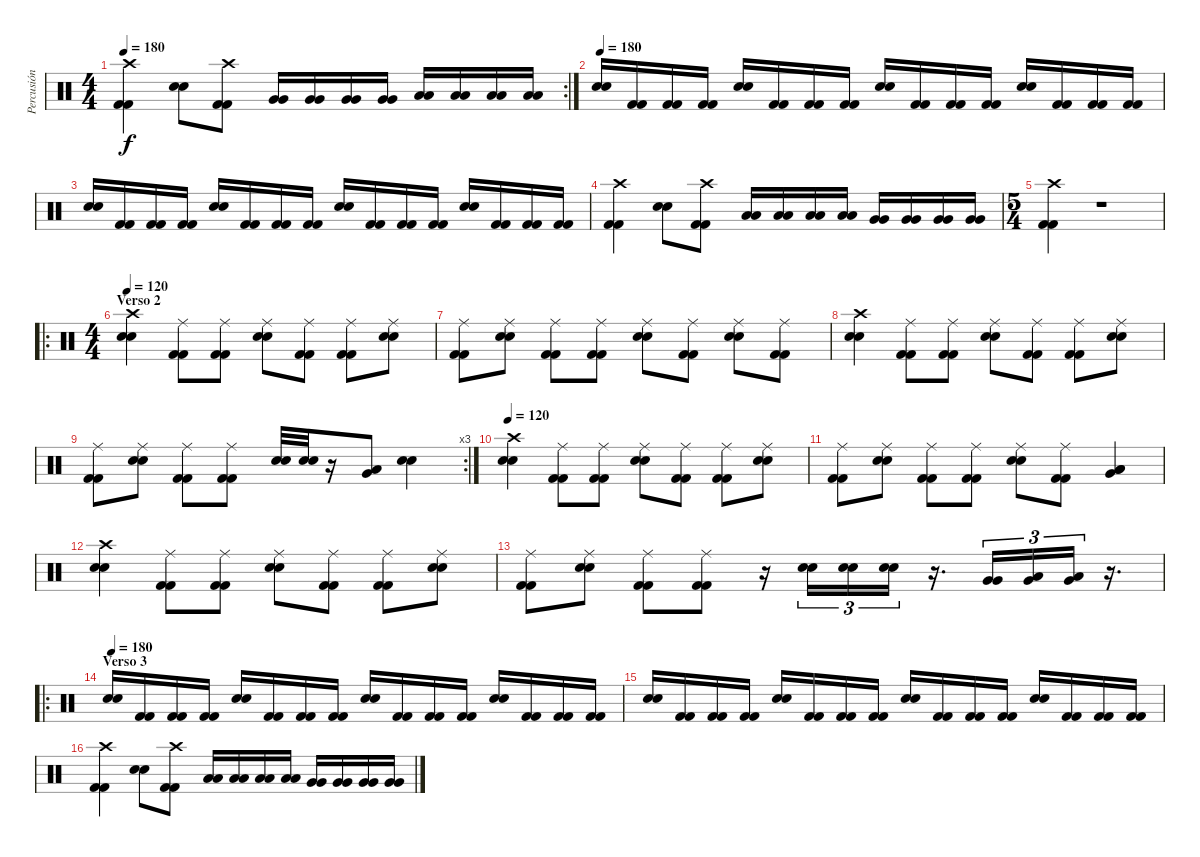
\track ("Percusión" "Percusión") {instrument percussion}
\staff {score}
\articulation defaults
\rc 2
\ts (4 4)
\tempo 180
\clef neutral
\ks c
("Crash high (hit)" "Kick (hit) 2" "Kick (hit) 2").4{dy f} ("Snare (hit) 2" "Snare (hit) 2").8 ("Crash high (hit)" "Kick (hit) 2" "Kick (hit) 2").8 ("Very Low Tom (hit)" "Very Low Tom (hit)").16 ("Very Low Tom (hit)" "Very Low Tom (hit)").16 ("Very Low Tom (hit)" "Very Low Tom (hit)").16 ("Very Low Tom (hit)" "Very Low Tom (hit)").16 ("Low Floor Tom (hit)" "Low Floor Tom (hit)").16 ("Low Floor Tom (hit)" "Low Floor Tom (hit)").16 ("Low Floor Tom (hit)" "Low Floor Tom (hit)").16 ("Low Floor Tom (hit)" "Low Floor Tom (hit)").16 |
\tempo 180
("Snare (hit) 2" "Snare (hit) 2").16 ("Kick (hit) 2" "Kick (hit) 2").16 ("Kick (hit) 2" "Kick (hit) 2").16 ("Kick (hit) 2" "Kick (hit) 2").16 ("Snare (hit) 2" "Snare (hit) 2").16 ("Kick (hit) 2" "Kick (hit) 2").16 ("Kick (hit) 2" "Kick (hit) 2").16 ("Kick (hit) 2" "Kick (hit) 2").16 ("Snare (hit) 2" "Snare (hit) 2").16 ("Kick (hit) 2" "Kick (hit) 2").16 ("Kick (hit) 2" "Kick (hit) 2").16 ("Kick (hit) 2" "Kick (hit) 2").16 ("Snare (hit) 2" "Snare (hit) 2").16 ("Kick (hit) 2" "Kick (hit) 2").16 ("Kick (hit) 2" "Kick (hit) 2").16 ("Kick (hit) 2" "Kick (hit) 2").16 |
("Snare (hit) 2" "Snare (hit) 2").16 ("Kick (hit) 2" "Kick (hit) 2").16 ("Kick (hit) 2" "Kick (hit) 2").16 ("Kick (hit) 2" "Kick (hit) 2").16 ("Snare (hit) 2" "Snare (hit) 2").16 ("Kick (hit) 2" "Kick (hit) 2").16 ("Kick (hit) 2" "Kick (hit) 2").16 ("Kick (hit) 2" "Kick (hit) 2").16 ("Snare (hit) 2" "Snare (hit) 2").16 ("Kick (hit) 2" "Kick (hit) 2").16 ("Kick (hit) 2" "Kick (hit) 2").16 ("Kick (hit) 2" "Kick (hit) 2").16 ("Snare (hit) 2" "Snare (hit) 2").16 ("Kick (hit) 2" "Kick (hit) 2").16 ("Kick (hit) 2" "Kick (hit) 2").16 ("Kick (hit) 2" "Kick (hit) 2").16 |
("Crash high (hit)" "Kick (hit) 2" "Kick (hit) 2").4 ("Snare (hit) 2" "Snare (hit) 2").8 ("Crash high (hit)" "Kick (hit) 2" "Kick (hit) 2").8 ("Low Tom (hit)" "Low Tom (hit)").16 ("Low Tom (hit)" "Low Tom (hit)").16 ("Low Tom (hit)" "Low Tom (hit)").16 ("Low Tom (hit)" "Low Tom (hit)").16 ("Very Low Tom (hit)" "Very Low Tom (hit)").16 ("Very Low Tom (hit)" "Very Low Tom (hit)").16 ("Very Low Tom (hit)" "Very Low Tom (hit)").16 ("Very Low Tom (hit)" "Very Low Tom (hit)").16 |
\ts (5 4)
("Crash high (hit)" "Kick (hit) 2" "Kick (hit) 2").4 r.1 |
\ro
\ts (4 4)
\section ("" "Verso 2")
\tempo 120
("Crash high (hit)" "Snare (hit) 2" "Snare (hit) 2").4 ("Ride (middle)" "Kick (hit) 2" "Kick (hit) 2").8 ("Ride (middle)" "Kick (hit) 2" "Kick (hit) 2").8 ("Ride (middle)" "Snare (hit) 2" "Snare (hit) 2").8 ("Ride (middle)" "Kick (hit) 2" "Kick (hit) 2").8 ("Ride (middle)" "Kick (hit) 2" "Kick (hit) 2").8 ("Ride (middle)" "Snare (hit) 2" "Snare (hit) 2").8 |
("Ride (middle)" "Kick (hit) 2" "Kick (hit) 2").8 ("Ride (middle)" "Snare (hit) 2" "Snare (hit) 2").8 ("Ride (middle)" "Kick (hit) 2" "Kick (hit) 2").8 ("Ride (middle)" "Kick (hit) 2" "Kick (hit) 2").8 ("Ride (middle)" "Snare (hit) 2" "Snare (hit) 2").8 ("Ride (middle)" "Kick (hit) 2" "Kick (hit) 2").8 ("Ride (middle)" "Snare (hit) 2" "Snare (hit) 2").8 ("Ride (middle)" "Kick (hit) 2" "Kick (hit) 2").8 |
("Crash high (hit)" "Snare (hit) 2" "Snare (hit) 2").4 ("Ride (middle)" "Kick (hit) 2" "Kick (hit) 2").8 ("Ride (middle)" "Kick (hit) 2" "Kick (hit) 2").8 ("Ride (middle)" "Snare (hit) 2" "Snare (hit) 2").8 ("Ride (middle)" "Kick (hit) 2" "Kick (hit) 2").8 ("Ride (middle)" "Kick (hit) 2" "Kick (hit) 2").8 ("Ride (middle)" "Snare (hit) 2" "Snare (hit) 2").8 |
\rc 3
("Ride (middle)" "Kick (hit) 2" "Kick (hit) 2").8 ("Ride (middle)" "Snare (hit) 2" "Snare (hit) 2").8 ("Ride (middle)" "Kick (hit) 2" "Kick (hit) 2").8 ("Ride (middle)" "Kick (hit) 2" "Kick (hit) 2").8 ("Electric Snare (hit)" "Electric Snare (hit)").32 ("Electric Snare (hit)" "Electric Snare (hit)").32 r.16 ("Very Low Tom (hit)" "Low Floor Tom (hit)").8 ("Snare (hit) 2" "Snare (hit) 2").4 |
\tempo 120
("Crash high (hit)" "Snare (hit) 2" "Snare (hit) 2").4 ("Ride (middle)" "Kick (hit) 2" "Kick (hit) 2").8 ("Ride (middle)" "Kick (hit) 2" "Kick (hit) 2").8 ("Ride (middle)" "Snare (hit) 2" "Snare (hit) 2").8 ("Ride (middle)" "Kick (hit) 2" "Kick (hit) 2").8 ("Ride (middle)" "Kick (hit) 2" "Kick (hit) 2").8 ("Ride (middle)" "Snare (hit) 2" "Snare (hit) 2").8 |
("Ride (middle)" "Kick (hit) 2" "Kick (hit) 2").8 ("Ride (middle)" "Snare (hit) 2" "Snare (hit) 2").8 ("Ride (middle)" "Kick (hit) 2" "Kick (hit) 2").8 ("Ride (middle)" "Kick (hit) 2" "Kick (hit) 2").8 ("Ride (middle)" "Snare (hit) 2" "Snare (hit) 2").8 ("Ride (middle)" "Kick (hit) 2" "Kick (hit) 2").8 ("Low Tom (hit)" "Very Low Tom (hit)" "Low Floor Tom (hit)").4 |
("Crash high (hit)" "Snare (hit) 2" "Snare (hit) 2").4 ("Ride (middle)" "Kick (hit) 2" "Kick (hit) 2").8 ("Ride (middle)" "Kick (hit) 2" "Kick (hit) 2").8 ("Ride (middle)" "Snare (hit) 2" "Snare (hit) 2").8 ("Ride (middle)" "Kick (hit) 2" "Kick (hit) 2").8 ("Ride (middle)" "Kick (hit) 2" "Kick (hit) 2").8 ("Ride (middle)" "Snare (hit) 2" "Snare (hit) 2").8 |
("Ride (middle)" "Kick (hit) 2" "Kick (hit) 2").8 ("Ride (middle)" "Snare (hit) 2" "Snare (hit) 2").8 ("Ride (middle)" "Kick (hit) 2" "Kick (hit) 2").8 ("Ride (middle)" "Kick (hit) 2" "Kick (hit) 2").8 r.16 ("Snare (hit) 2" "Snare (hit) 2").16{tu (3 2)} ("Snare (hit) 2" "Snare (hit) 2").16{tu (3 2)} ("Snare (hit) 2" "Snare (hit) 2").16{tu (3 2)} r.16{d} ("Very Low Tom (hit)" "Very Low Tom (hit)").16{tu (3 2)} ("Very Low Tom (hit)" "Low Floor Tom (hit)").16{tu (3 2)} ("Very Low Tom (hit)" "Low Floor Tom (hit)").16{tu (3 2)} r.16{d} |
\ro
\section ("" "Verso 3")
\tempo 180
("Snare (hit) 2" "Snare (hit) 2").16 ("Kick (hit) 2" "Kick (hit) 2").16 ("Kick (hit) 2" "Kick (hit) 2").16 ("Kick (hit) 2" "Kick (hit) 2").16 ("Snare (hit) 2" "Snare (hit) 2").16 ("Kick (hit) 2" "Kick (hit) 2").16 ("Kick (hit) 2" "Kick (hit) 2").16 ("Kick (hit) 2" "Kick (hit) 2").16 ("Snare (hit) 2" "Snare (hit) 2").16 ("Kick (hit) 2" "Kick (hit) 2").16 ("Kick (hit) 2" "Kick (hit) 2").16 ("Kick (hit) 2" "Kick (hit) 2").16 ("Snare (hit) 2" "Snare (hit) 2").16 ("Kick (hit) 2" "Kick (hit) 2").16 ("Kick (hit) 2" "Kick (hit) 2").16 ("Kick (hit) 2" "Kick (hit) 2").16 |
("Snare (hit) 2" "Snare (hit) 2").16 ("Kick (hit) 2" "Kick (hit) 2").16 ("Kick (hit) 2" "Kick (hit) 2").16 ("Kick (hit) 2" "Kick (hit) 2").16 ("Snare (hit) 2" "Snare (hit) 2").16 ("Kick (hit) 2" "Kick (hit) 2").16 ("Kick (hit) 2" "Kick (hit) 2").16 ("Kick (hit) 2" "Kick (hit) 2").16 ("Snare (hit) 2" "Snare (hit) 2").16 ("Kick (hit) 2" "Kick (hit) 2").16 ("Kick (hit) 2" "Kick (hit) 2").16 ("Kick (hit) 2" "Kick (hit) 2").16 ("Snare (hit) 2" "Snare (hit) 2").16 ("Kick (hit) 2" "Kick (hit) 2").16 ("Kick (hit) 2" "Kick (hit) 2").16 ("Kick (hit) 2" "Kick (hit) 2").16 |
("Crash high (hit)" "Kick (hit) 2" "Kick (hit) 2").4 ("Snare (hit) 2" "Snare (hit) 2").8 ("Crash high (hit)" "Kick (hit) 2" "Kick (hit) 2").8 ("Low Tom (hit)" "Low Tom (hit)").16 ("Low Tom (hit)" "Low Tom (hit)").16 ("Low Tom (hit)" "Low Tom (hit)").16 ("Low Tom (hit)" "Low Tom (hit)").16 ("Very Low Tom (hit)" "Very Low Tom (hit)").16 ("Very Low Tom (hit)" "Very Low Tom (hit)").16 ("Very Low Tom (hit)" "Very Low Tom (hit)").16 ("Very Low Tom (hit)" "Very Low Tom (hit)").16
